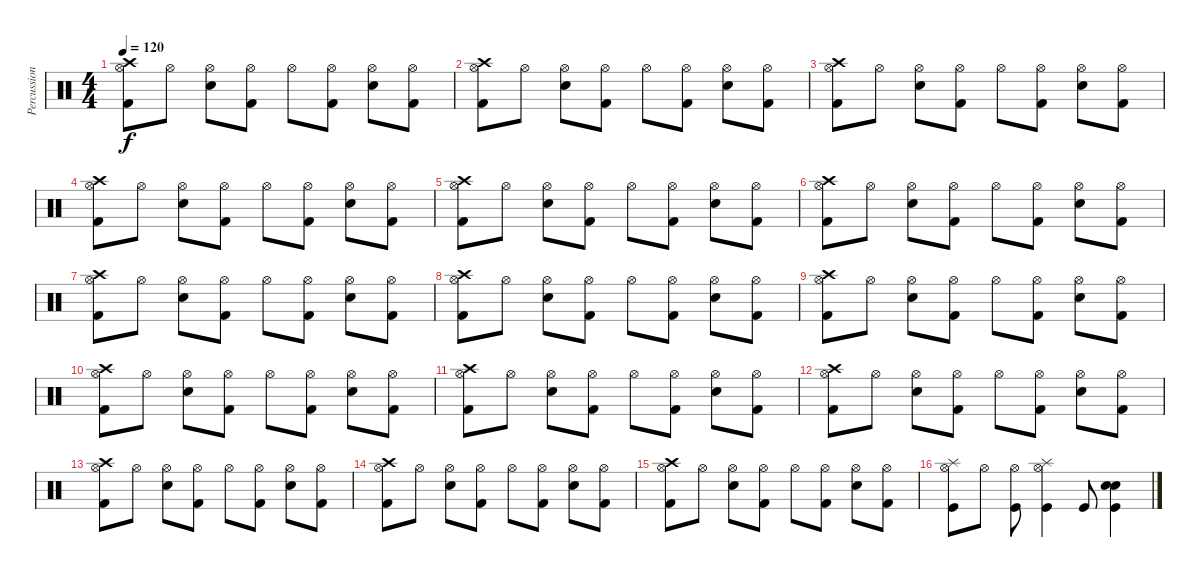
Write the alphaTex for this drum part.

\track ("Percussion" "Percussion") {instrument percussion}
\staff {score}
\articulation defaults
\ts (4 4)
\tempo 120
\clef neutral
\ks c
("Kick (hit) 2" "Hi-Hat (open)" "Crash high (hit)").8{dy f} "Hi-Hat (open)".8 ("Electric Snare (hit)" "Hi-Hat (open)").8 ("Kick (hit) 2" "Hi-Hat (open)").8 "Hi-Hat (open)".8 ("Kick (hit) 2" "Hi-Hat (open)").8 ("Electric Snare (hit)" "Hi-Hat (open)").8 ("Kick (hit) 2" "Hi-Hat (open)").8 |
("Kick (hit) 2" "Hi-Hat (open)" "Crash high (hit)").8 "Hi-Hat (open)".8 ("Electric Snare (hit)" "Hi-Hat (open)").8 ("Kick (hit) 2" "Hi-Hat (open)").8 "Hi-Hat (open)".8 ("Kick (hit) 2" "Hi-Hat (open)").8 ("Electric Snare (hit)" "Hi-Hat (open)").8 ("Kick (hit) 2" "Hi-Hat (open)").8 |
("Kick (hit) 2" "Hi-Hat (open)" "Crash high (hit)").8 "Hi-Hat (open)".8 ("Electric Snare (hit)" "Hi-Hat (open)").8 ("Kick (hit) 2" "Hi-Hat (open)").8 "Hi-Hat (open)".8 ("Kick (hit) 2" "Hi-Hat (open)").8 ("Electric Snare (hit)" "Hi-Hat (open)").8 ("Kick (hit) 2" "Hi-Hat (open)").8 |
("Kick (hit) 2" "Hi-Hat (open)" "Crash high (hit)").8 "Hi-Hat (open)".8 ("Electric Snare (hit)" "Hi-Hat (open)").8 ("Kick (hit) 2" "Hi-Hat (open)").8 "Hi-Hat (open)".8 ("Kick (hit) 2" "Hi-Hat (open)").8 ("Electric Snare (hit)" "Hi-Hat (open)").8 ("Kick (hit) 2" "Hi-Hat (open)").8 |
("Kick (hit) 2" "Hi-Hat (open)" "Crash high (hit)").8 "Hi-Hat (open)".8 ("Electric Snare (hit)" "Hi-Hat (open)").8 ("Kick (hit) 2" "Hi-Hat (open)").8 "Hi-Hat (open)".8 ("Kick (hit) 2" "Hi-Hat (open)").8 ("Electric Snare (hit)" "Hi-Hat (open)").8 ("Kick (hit) 2" "Hi-Hat (open)").8 |
("Kick (hit) 2" "Hi-Hat (open)" "Crash high (hit)").8 "Hi-Hat (open)".8 ("Electric Snare (hit)" "Hi-Hat (open)").8 ("Kick (hit) 2" "Hi-Hat (open)").8 "Hi-Hat (open)".8 ("Kick (hit) 2" "Hi-Hat (open)").8 ("Electric Snare (hit)" "Hi-Hat (open)").8 ("Kick (hit) 2" "Hi-Hat (open)").8 |
("Kick (hit) 2" "Hi-Hat (open)" "Crash high (hit)").8 "Hi-Hat (open)".8 ("Electric Snare (hit)" "Hi-Hat (open)").8 ("Kick (hit) 2" "Hi-Hat (open)").8 "Hi-Hat (open)".8 ("Kick (hit) 2" "Hi-Hat (open)").8 ("Electric Snare (hit)" "Hi-Hat (open)").8 ("Kick (hit) 2" "Hi-Hat (open)").8 |
("Kick (hit) 2" "Hi-Hat (open)" "Crash high (hit)").8 "Hi-Hat (open)".8 ("Electric Snare (hit)" "Hi-Hat (open)").8 ("Kick (hit) 2" "Hi-Hat (open)").8 "Hi-Hat (open)".8 ("Kick (hit) 2" "Hi-Hat (open)").8 ("Electric Snare (hit)" "Hi-Hat (open)").8 ("Kick (hit) 2" "Hi-Hat (open)").8 |
("Kick (hit) 2" "Hi-Hat (open)" "Crash high (hit)").8 "Hi-Hat (open)".8 ("Electric Snare (hit)" "Hi-Hat (open)").8 ("Kick (hit) 2" "Hi-Hat (open)").8 "Hi-Hat (open)".8 ("Kick (hit) 2" "Hi-Hat (open)").8 ("Electric Snare (hit)" "Hi-Hat (open)").8 ("Kick (hit) 2" "Hi-Hat (open)").8 |
("Kick (hit) 2" "Hi-Hat (open)" "Crash high (hit)").8 "Hi-Hat (open)".8 ("Electric Snare (hit)" "Hi-Hat (open)").8 ("Kick (hit) 2" "Hi-Hat (open)").8 "Hi-Hat (open)".8 ("Kick (hit) 2" "Hi-Hat (open)").8 ("Electric Snare (hit)" "Hi-Hat (open)").8 ("Kick (hit) 2" "Hi-Hat (open)").8 |
("Kick (hit) 2" "Hi-Hat (open)" "Crash high (hit)").8 "Hi-Hat (open)".8 ("Electric Snare (hit)" "Hi-Hat (open)").8 ("Kick (hit) 2" "Hi-Hat (open)").8 "Hi-Hat (open)".8 ("Kick (hit) 2" "Hi-Hat (open)").8 ("Electric Snare (hit)" "Hi-Hat (open)").8 ("Kick (hit) 2" "Hi-Hat (open)").8 |
("Kick (hit) 2" "Hi-Hat (open)" "Crash high (hit)").8 "Hi-Hat (open)".8 ("Electric Snare (hit)" "Hi-Hat (open)").8 ("Kick (hit) 2" "Hi-Hat (open)").8 "Hi-Hat (open)".8 ("Kick (hit) 2" "Hi-Hat (open)").8 ("Electric Snare (hit)" "Hi-Hat (open)").8 ("Kick (hit) 2" "Hi-Hat (open)").8 |
("Kick (hit) 2" "Hi-Hat (open)" "Crash high (hit)").8 "Hi-Hat (open)".8 ("Electric Snare (hit)" "Hi-Hat (open)").8 ("Kick (hit) 2" "Hi-Hat (open)").8 "Hi-Hat (open)".8 ("Kick (hit) 2" "Hi-Hat (open)").8 ("Electric Snare (hit)" "Hi-Hat (open)").8 ("Kick (hit) 2" "Hi-Hat (open)").8 |
("Kick (hit) 2" "Hi-Hat (open)" "Crash high (hit)").8 "Hi-Hat (open)".8 ("Electric Snare (hit)" "Hi-Hat (open)").8 ("Kick (hit) 2" "Hi-Hat (open)").8 "Hi-Hat (open)".8 ("Kick (hit) 2" "Hi-Hat (open)").8 ("Electric Snare (hit)" "Hi-Hat (open)").8 ("Kick (hit) 2" "Hi-Hat (open)").8 |
("Kick (hit) 2" "Hi-Hat (open)" "Crash high (hit)").8 "Hi-Hat (open)".8 ("Electric Snare (hit)" "Hi-Hat (open)").8 ("Kick (hit) 2" "Hi-Hat (open)").8 "Hi-Hat (open)".8 ("Kick (hit) 2" "Hi-Hat (open)").8 ("Electric Snare (hit)" "Hi-Hat (open)").8 ("Kick (hit) 2" "Hi-Hat (open)").8 |
("Hi-Hat (open)" "Kick (hit)" "Splash (hit)").8 "Hi-Hat (open)".8 ("Hi-Hat (open)" "Kick (hit)").8 ("Hi-Hat (open)" "Splash (hit)" "Kick (hit)").4 "Kick (hit)".8 ("Kick (hit)" "Electric Snare (hit)" "Snare (hit) 2").4
